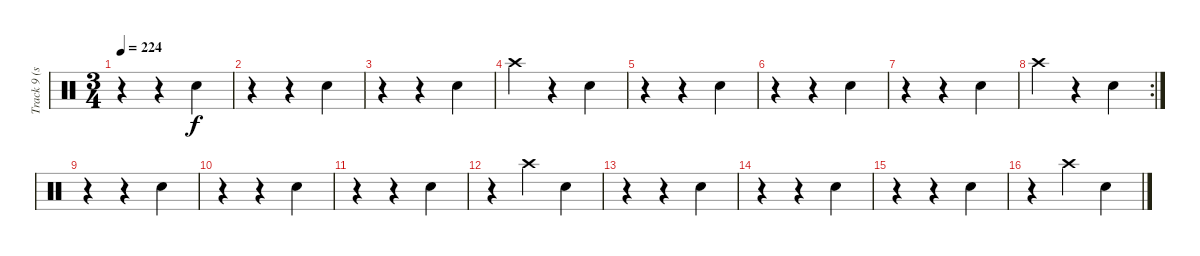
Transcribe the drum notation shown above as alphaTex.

\track ("Track 9 (snare)" "Track 9 (s") {instrument percussion}
\staff {score}
\articulation defaults
\ts (3 4)
\tempo 224
\clef neutral
\ks c
r.4{dy f} r.4 "Electric Snare (hit)".4 |
r.4 r.4 "Electric Snare (hit)".4 |
r.4 r.4 "Electric Snare (hit)".4 |
"Crash high (hit)".4 r.4 "Electric Snare (hit)".4 |
r.4 r.4 "Electric Snare (hit)".4 |
r.4 r.4 "Electric Snare (hit)".4 |
r.4 r.4 "Electric Snare (hit)".4 |
\rc 2 "Crash high (hit)".4
r.4 "Electric Snare (hit)".4 |
r.4 r.4 "Electric Snare (hit)".4 |
r.4 r.4 "Electric Snare (hit)".4 |
r.4 r.4 "Electric Snare (hit)".4 |
r.4 "Crash high (hit)".4 "Electric Snare (hit)".4 |
r.4 r.4 "Electric Snare (hit)".4 |
r.4 r.4 "Electric Snare (hit)".4 |
r.4 r.4 "Electric Snare (hit)".4 |
r.4 "Crash high (hit)".4 "Electric Snare (hit)".4
